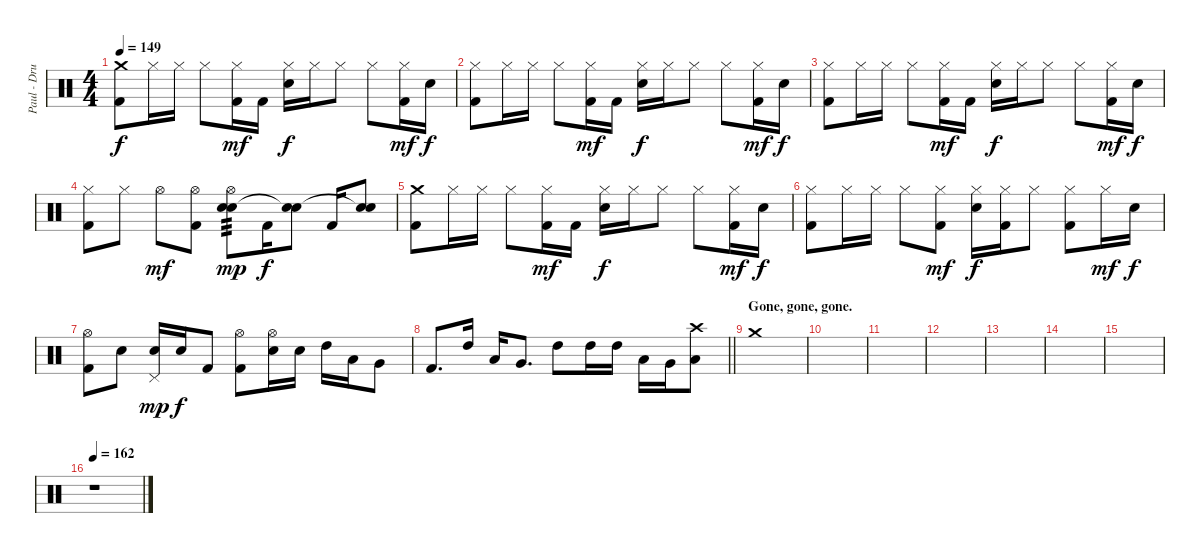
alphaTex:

\track ("Paul - Drums" "Paul - Dru") {instrument percussion}
\staff {score}
\articulation defaults
\ts (4 4)
\tempo 149
\clef neutral
\ks c
("Crash medium (hit)" "Kick (hit) 2").8{dy f} "Hi-Hat (closed)".16 "Hi-Hat (closed)".16 "Hi-Hat (closed)".8 ("Hi-Hat (closed)" "Kick (hit) 2").16{dy mf} "Kick (hit) 2".16 ("Hi-Hat (closed)" "Electric Snare (hit)").16{dy f} "Hi-Hat (closed)".16 "Hi-Hat (closed)".8 "Hi-Hat (closed)".8 ("Hi-Hat (closed)" "Kick (hit) 2").16{dy mf} "Electric Snare (hit)".16{dy f} |
("Hi-Hat (closed)" "Kick (hit) 2").8 "Hi-Hat (closed)".16 "Hi-Hat (closed)".16 "Hi-Hat (closed)".8 ("Hi-Hat (closed)" "Kick (hit) 2").16{dy mf} "Kick (hit) 2".16 ("Hi-Hat (closed)" "Electric Snare (hit)").16{dy f} "Hi-Hat (closed)".16 "Hi-Hat (closed)".8 "Hi-Hat (closed)".8 ("Hi-Hat (closed)" "Kick (hit) 2").16{dy mf} "Electric Snare (hit)".16{dy f} |
("Hi-Hat (closed)" "Kick (hit) 2").8 "Hi-Hat (closed)".16 "Hi-Hat (closed)".16 "Hi-Hat (closed)".8 ("Hi-Hat (closed)" "Kick (hit) 2").16{dy mf} "Kick (hit) 2".16 ("Hi-Hat (closed)" "Electric Snare (hit)").16{dy f} "Hi-Hat (closed)".16 "Hi-Hat (closed)".8 "Hi-Hat (closed)".8 ("Hi-Hat (closed)" "Kick (hit) 2").16{dy mf} "Electric Snare (hit)".16{dy f} |
("Hi-Hat (closed)" "Kick (hit) 2").8 "Hi-Hat (closed)".8 "Hi-Hat (open)".8{dy mf} ("Hi-Hat (open)" "Kick (hit) 2").8 ("Hi-Hat (open)" "Electric Snare (hit)" "Electric Snare (hit)").8{tp 3 dy mp} "Kick (hit) 2".16{dy f} ("Electric Snare (hit)" "Snare (hit)"{t}).8 "Kick (hit) 2".16 ("Electric Snare (hit)" "Snare (hit)"{t}).8 |
("Crash medium (hit)" "Kick (hit) 2").8 "Hi-Hat (closed)".16 "Hi-Hat (closed)".16 "Hi-Hat (closed)".8 ("Hi-Hat (closed)" "Kick (hit) 2").16{dy mf} "Kick (hit) 2".16 ("Hi-Hat (closed)" "Electric Snare (hit)").16{dy f} "Hi-Hat (closed)".16 "Hi-Hat (closed)".8 "Hi-Hat (closed)".8 ("Hi-Hat (closed)" "Kick (hit) 2").16{dy mf} "Electric Snare (hit)".16{dy f} |
("Hi-Hat (closed)" "Kick (hit) 2").8 "Hi-Hat (closed)".16 "Hi-Hat (closed)".16 "Hi-Hat (closed)".8 ("Hi-Hat (closed)" "Kick (hit) 2").8{dy mf} ("Hi-Hat (closed)" "Electric Snare (hit)").16{dy f} ("Hi-Hat (closed)" "Kick (hit) 2").16 "Hi-Hat (closed)".8 ("Hi-Hat (closed)" "Kick (hit) 2").8 "Hi-Hat (closed)".16{dy mf} "Electric Snare (hit)".16{dy f} |
("Hi-Hat (open)" "Kick (hit) 2").8 "Electric Snare (hit)".8 ("Pedal Hi-Hat (hit)" "Electric Snare (hit)").16{dy mp} "Electric Snare (hit)".16{dy f} "Kick (hit) 2".8 ("Hi-Hat (open)" "Kick (hit) 2").8 ("Hi-Hat (open)" "Electric Snare (hit)").16 "Electric Snare (hit)".16 "High Tom (hit)".16 "Low Tom (hit)".16 "Very Low Tom (hit)".8 |
\barLineRight lightlight "Kick (hit) 2".8{d} "High Tom (hit)".16 "Low Tom (hit)".16 "Very Low Tom (hit)".8{d} "High Tom (hit)".8 "High Tom (hit)".16 "High Tom (hit)".16 "Low Tom (hit)".16 "Very Low Tom (hit)".16
("Crash high (hit)" "Low Tom (hit)").8 |
\section ("" "Gone, gone, gone.")
"Crash medium (hit)".1 |
|
|
|
|
|
|
\tempo 162
r.1
